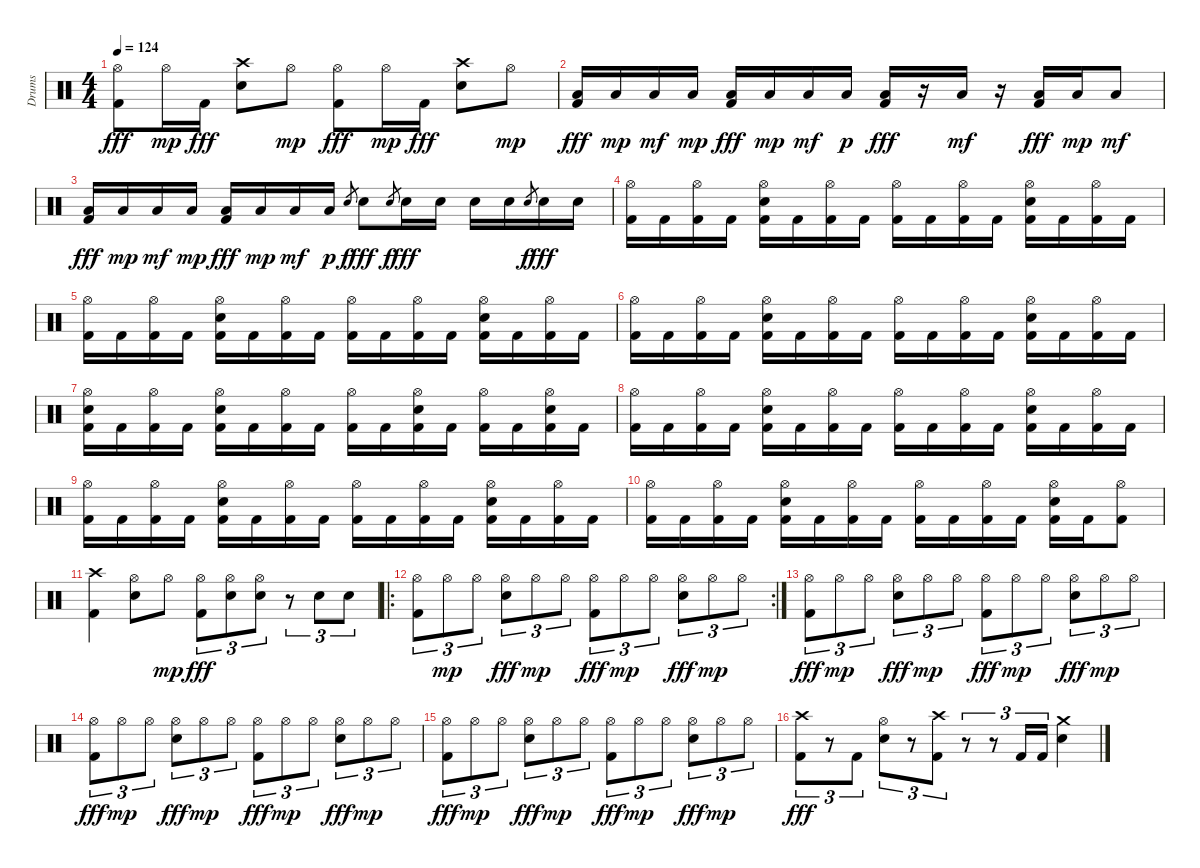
\track ("Drums" "Drums") {instrument percussion}
\staff {score}
\articulation defaults
\ts (4 4)
\tempo 124
\clef neutral
\ks c
("Hi-Hat (open)" "Kick (hit) 2").8{dy fff} "Hi-Hat (open)".16{dy mp} "Kick (hit) 2".16{dy fff} ("Crash high (hit)" "Electric Snare (hit)").8 "Hi-Hat (open)".8{dy mp} ("Hi-Hat (open)" "Kick (hit) 2").8{dy fff} "Hi-Hat (open)".16{dy mp} "Kick (hit) 2".16{dy fff} ("Crash high (hit)" "Electric Snare (hit)").8 "Hi-Hat (open)".8{dy mp} |
("Low Floor Tom (hit)" "Kick (hit) 2").16{dy fff} "Low Floor Tom (hit)".16{dy mp} "Low Floor Tom (hit)".16{dy mf} "Low Floor Tom (hit)".16{dy mp} ("Low Floor Tom (hit)" "Kick (hit) 2").16{dy fff} "Low Floor Tom (hit)".16{dy mp} "Low Floor Tom (hit)".16{dy mf} "Low Floor Tom (hit)".16{dy p} ("Low Floor Tom (hit)" "Kick (hit) 2").16{dy fff} r.16 "Low Floor Tom (hit)".16{dy mf} r.16 ("Low Floor Tom (hit)" "Kick (hit) 2").16{dy fff} "Low Floor Tom (hit)".16{dy mp} "Low Floor Tom (hit)".8{dy mf} |
("Low Floor Tom (hit)" "Kick (hit) 2").16{dy fff} "Low Floor Tom (hit)".16{dy mp} "Low Floor Tom (hit)".16{dy mf} "Low Floor Tom (hit)".16{dy mp} ("Low Floor Tom (hit)" "Kick (hit) 2").16{dy fff} "Low Floor Tom (hit)".16{dy mp} "Low Floor Tom (hit)".16{dy mf} "Low Floor Tom (hit)".16{dy p} "Electric Snare (hit)".8{gr dy f} "Electric Snare (hit)".8{dy fff} "Electric Snare (hit)".8{gr dy f} "Electric Snare (hit)".16{dy fff} "Electric Snare (hit)".16 "Electric Snare (hit)".16 "Electric Snare (hit)".16 "Electric Snare (hit)".8{gr dy f} "Electric Snare (hit)".16{dy fff} "Electric Snare (hit)".16 |
("Hi-Hat (open)" "Kick (hit) 2").16 "Kick (hit) 2".16 ("Hi-Hat (open)" "Kick (hit) 2").16 "Kick (hit) 2".16 ("Hi-Hat (open)" "Electric Snare (hit)" "Kick (hit) 2").16 "Kick (hit) 2".16 ("Hi-Hat (open)" "Kick (hit) 2").16 "Kick (hit) 2".16 ("Hi-Hat (open)" "Kick (hit) 2").16 "Kick (hit) 2".16 ("Hi-Hat (open)" "Kick (hit) 2").16 "Kick (hit) 2".16 ("Hi-Hat (open)" "Electric Snare (hit)" "Kick (hit) 2").16 "Kick (hit) 2".16 ("Hi-Hat (open)" "Kick (hit) 2").16 "Kick (hit) 2".16 |
("Hi-Hat (open)" "Kick (hit) 2").16 "Kick (hit) 2".16 ("Hi-Hat (open)" "Kick (hit) 2").16 "Kick (hit) 2".16 ("Hi-Hat (open)" "Electric Snare (hit)" "Kick (hit) 2").16 "Kick (hit) 2".16 ("Hi-Hat (open)" "Kick (hit) 2").16 "Kick (hit) 2".16 ("Hi-Hat (open)" "Kick (hit) 2").16 "Kick (hit) 2".16 ("Hi-Hat (open)" "Kick (hit) 2").16 "Kick (hit) 2".16 ("Hi-Hat (open)" "Electric Snare (hit)" "Kick (hit) 2").16 "Kick (hit) 2".16 ("Hi-Hat (open)" "Kick (hit) 2").16 "Kick (hit) 2".16 |
("Hi-Hat (open)" "Kick (hit) 2").16 "Kick (hit) 2".16 ("Hi-Hat (open)" "Kick (hit) 2").16 "Kick (hit) 2".16 ("Hi-Hat (open)" "Electric Snare (hit)" "Kick (hit) 2").16 "Kick (hit) 2".16 ("Hi-Hat (open)" "Kick (hit) 2").16 "Kick (hit) 2".16 ("Hi-Hat (open)" "Kick (hit) 2").16 "Kick (hit) 2".16 ("Hi-Hat (open)" "Kick (hit) 2").16 "Kick (hit) 2".16 ("Hi-Hat (open)" "Electric Snare (hit)" "Kick (hit) 2").16 "Kick (hit) 2".16 ("Hi-Hat (open)" "Kick (hit) 2").16 "Kick (hit) 2".16 |
("Hi-Hat (open)" "Electric Snare (hit)" "Kick (hit) 2").16 "Kick (hit) 2".16 ("Hi-Hat (open)" "Kick (hit) 2").16 "Kick (hit) 2".16 ("Hi-Hat (open)" "Electric Snare (hit)" "Kick (hit) 2").16 "Kick (hit) 2".16 ("Hi-Hat (open)" "Kick (hit) 2").16 "Kick (hit) 2".16 ("Hi-Hat (open)" "Kick (hit) 2").16 "Kick (hit) 2".16 ("Hi-Hat (open)" "Electric Snare (hit)" "Kick (hit) 2").16 "Kick (hit) 2".16 ("Hi-Hat (open)" "Kick (hit) 2").16 "Kick (hit) 2".16 ("Hi-Hat (open)" "Electric Snare (hit)" "Kick (hit) 2").16 "Kick (hit) 2".16 |
("Hi-Hat (open)" "Kick (hit) 2").16 "Kick (hit) 2".16 ("Hi-Hat (open)" "Kick (hit) 2").16 "Kick (hit) 2".16 ("Hi-Hat (open)" "Electric Snare (hit)" "Kick (hit) 2").16 "Kick (hit) 2".16 ("Hi-Hat (open)" "Kick (hit) 2").16 "Kick (hit) 2".16 ("Hi-Hat (open)" "Kick (hit) 2").16 "Kick (hit) 2".16 ("Hi-Hat (open)" "Kick (hit) 2").16 "Kick (hit) 2".16 ("Hi-Hat (open)" "Electric Snare (hit)" "Kick (hit) 2").16 "Kick (hit) 2".16 ("Hi-Hat (open)" "Kick (hit) 2").16 "Kick (hit) 2".16 |
("Hi-Hat (open)" "Kick (hit) 2").16 "Kick (hit) 2".16 ("Hi-Hat (open)" "Kick (hit) 2").16 "Kick (hit) 2".16 ("Hi-Hat (open)" "Electric Snare (hit)" "Kick (hit) 2").16 "Kick (hit) 2".16 ("Hi-Hat (open)" "Kick (hit) 2").16 "Kick (hit) 2".16 ("Hi-Hat (open)" "Kick (hit) 2").16 "Kick (hit) 2".16 ("Hi-Hat (open)" "Kick (hit) 2").16 "Kick (hit) 2".16 ("Hi-Hat (open)" "Electric Snare (hit)" "Kick (hit) 2").16 "Kick (hit) 2".16 ("Hi-Hat (open)" "Kick (hit) 2").16 "Kick (hit) 2".16 |
("Hi-Hat (open)" "Kick (hit) 2").16 "Kick (hit) 2".16 ("Hi-Hat (open)" "Kick (hit) 2").16 "Kick (hit) 2".16 ("Hi-Hat (open)" "Electric Snare (hit)" "Kick (hit) 2").16 "Kick (hit) 2".16 ("Hi-Hat (open)" "Kick (hit) 2").16 "Kick (hit) 2".16 ("Hi-Hat (open)" "Kick (hit) 2").16 "Kick (hit) 2".16 ("Hi-Hat (open)" "Kick (hit) 2").16 "Kick (hit) 2".16 ("Hi-Hat (open)" "Electric Snare (hit)" "Kick (hit) 2").16 "Kick (hit) 2".16 ("Hi-Hat (open)" "Kick (hit) 2").8 |
("Crash high (hit)" "Kick (hit) 2").4 ("Hi-Hat (open)" "Electric Snare (hit)").8 "Hi-Hat (open)".8{dy mp} ("Hi-Hat (open)" "Kick (hit) 2").8{tu (3 2) dy fff} ("Hi-Hat (open)" "Electric Snare (hit)").8{tu (3 2)} ("Hi-Hat (open)" "Electric Snare (hit)").8{tu (3 2)} r.8{tu (3 2)} "Electric Snare (hit)".8{tu (3 2)} "Electric Snare (hit)".8{tu (3 2)} |
\ro
\rc 2
("Hi-Hat (open)" "Kick (hit) 2").8{tu (3 2)} "Hi-Hat (open)".8{tu (3 2) dy mp} "Hi-Hat (open)".8{tu (3 2)} ("Hi-Hat (open)" "Electric Snare (hit)").8{tu (3 2) dy fff} "Hi-Hat (open)".8{tu (3 2) dy mp} "Hi-Hat (open)".8{tu (3 2)} ("Hi-Hat (open)" "Kick (hit) 2").8{tu (3 2) dy fff} "Hi-Hat (open)".8{tu (3 2) dy mp} "Hi-Hat (open)".8{tu (3 2)} ("Hi-Hat (open)" "Electric Snare (hit)").8{tu (3 2) dy fff} "Hi-Hat (open)".8{tu (3 2) dy mp} "Hi-Hat (open)".8{tu (3 2)} |
("Hi-Hat (open)" "Kick (hit) 2").8{tu (3 2) dy fff} "Hi-Hat (open)".8{tu (3 2) dy mp} "Hi-Hat (open)".8{tu (3 2)} ("Hi-Hat (open)" "Electric Snare (hit)").8{tu (3 2) dy fff} "Hi-Hat (open)".8{tu (3 2) dy mp} "Hi-Hat (open)".8{tu (3 2)} ("Hi-Hat (open)" "Kick (hit) 2").8{tu (3 2) dy fff} "Hi-Hat (open)".8{tu (3 2) dy mp} "Hi-Hat (open)".8{tu (3 2)} ("Hi-Hat (open)" "Electric Snare (hit)").8{tu (3 2) dy fff} "Hi-Hat (open)".8{tu (3 2) dy mp} "Hi-Hat (open)".8{tu (3 2)} |
("Hi-Hat (open)" "Kick (hit) 2").8{tu (3 2) dy fff} "Hi-Hat (open)".8{tu (3 2) dy mp} "Hi-Hat (open)".8{tu (3 2)} ("Hi-Hat (open)" "Electric Snare (hit)").8{tu (3 2) dy fff} "Hi-Hat (open)".8{tu (3 2) dy mp} "Hi-Hat (open)".8{tu (3 2)} ("Hi-Hat (open)" "Kick (hit) 2").8{tu (3 2) dy fff} "Hi-Hat (open)".8{tu (3 2) dy mp} "Hi-Hat (open)".8{tu (3 2)} ("Hi-Hat (open)" "Electric Snare (hit)").8{tu (3 2) dy fff} "Hi-Hat (open)".8{tu (3 2) dy mp} "Hi-Hat (open)".8{tu (3 2)} |
("Hi-Hat (open)" "Kick (hit) 2").8{tu (3 2) dy fff} "Hi-Hat (open)".8{tu (3 2) dy mp} "Hi-Hat (open)".8{tu (3 2)} ("Hi-Hat (open)" "Electric Snare (hit)").8{tu (3 2) dy fff} "Hi-Hat (open)".8{tu (3 2) dy mp} "Hi-Hat (open)".8{tu (3 2)} ("Hi-Hat (open)" "Kick (hit) 2").8{tu (3 2) dy fff} "Hi-Hat (open)".8{tu (3 2) dy mp} "Hi-Hat (open)".8{tu (3 2)} ("Hi-Hat (open)" "Electric Snare (hit)").8{tu (3 2) dy fff} "Hi-Hat (open)".8{tu (3 2) dy mp} "Hi-Hat (open)".8{tu (3 2)} |
("Crash high (hit)" "Kick (hit) 2").8{tu (3 2) dy fff} r.8{tu (3 2)} "Kick (hit) 2".8{tu (3 2)} ("Hi-Hat (open)" "Electric Snare (hit)").8{tu (3 2)} r.8{tu (3 2)} ("Crash high (hit)" "Kick (hit) 2").8{tu (3 2)} r.8{tu (3 2)} r.8{tu (3 2)} "Kick (hit) 2".16{tu (3 2)} "Kick (hit) 2".16{tu (3 2)} ("Crash medium (hit)" "Electric Snare (hit)").4
